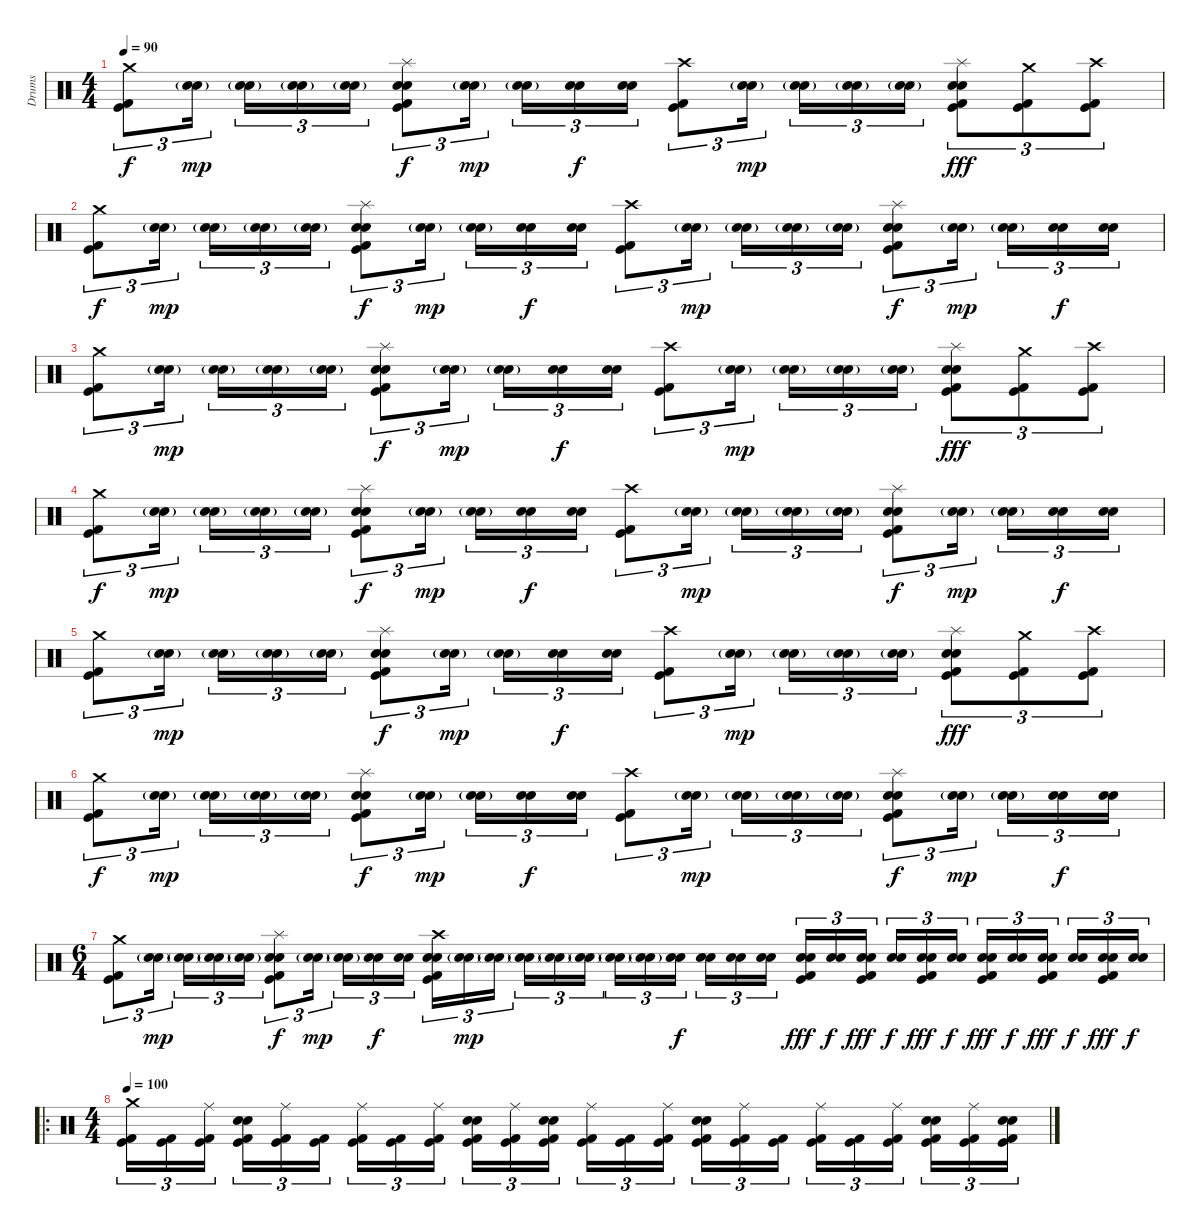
\track ("Drums" "Drums") {instrument percussion}
\staff {score}
\articulation defaults
\ts (4 4)
\tempo 90
\clef neutral
\ks c
("Crash medium (hit)" "Kick (hit)" "Kick (hit) 2").8{tu (3 2) dy f} ("Snare (hit) 2"{g} "Electric Snare (hit)"{g}).16{tu (3 2) dy mp beam splitsecondary} ("Snare (hit) 2"{g} "Electric Snare (hit)"{g}).16{tu (3 2)} ("Snare (hit) 2"{g} "Electric Snare (hit)"{g}).16{tu (3 2)} ("Snare (hit) 2"{g} "Electric Snare (hit)"{g}).16{tu (3 2)} ("Splash (hit)" "Snare (hit) 2" "Electric Snare (hit)" "Kick (hit)" "Kick (hit) 2").8{tu (3 2) dy f} ("Snare (hit) 2"{g} "Electric Snare (hit)"{g}).16{tu (3 2) dy mp beam splitsecondary} ("Snare (hit) 2"{g} "Electric Snare (hit)"{g}).16{tu (3 2)} ("Snare (hit) 2" "Electric Snare (hit)").16{tu (3 2) dy f} ("Snare (hit) 2" "Electric Snare (hit)").16{tu (3 2)} ("Crash high (hit)" "Kick (hit)" "Kick (hit) 2").8{tu (3 2)} ("Electric Snare (hit)"{g} "Snare (hit) 2"{g}).16{tu (3 2) dy mp beam splitsecondary} ("Electric Snare (hit)"{g} "Snare (hit) 2"{g}).16{tu (3 2)} ("Electric Snare (hit)"{g} "Snare (hit) 2"{g}).16{tu (3 2)} ("Electric Snare (hit)"{g} "Snare (hit) 2"{g}).16{tu (3 2)} ("Splash (hit)" "Electric Snare (hit)" "Snare (hit) 2" "Kick (hit)" "Kick (hit) 2").8{tu (3 2) dy fff} ("Crash medium (hit)" "Kick (hit)" "Kick (hit) 2").8{tu (3 2)} ("Crash high (hit)" "Kick (hit)" "Kick (hit) 2").8{tu (3 2)} |
("Crash medium (hit)" "Kick (hit)" "Kick (hit) 2").8{tu (3 2) dy f} ("Snare (hit) 2"{g} "Electric Snare (hit)"{g}).16{tu (3 2) dy mp beam splitsecondary} ("Snare (hit) 2"{g} "Electric Snare (hit)"{g}).16{tu (3 2)} ("Snare (hit) 2"{g} "Electric Snare (hit)"{g}).16{tu (3 2)} ("Snare (hit) 2"{g} "Electric Snare (hit)"{g}).16{tu (3 2)} ("Splash (hit)" "Snare (hit) 2" "Electric Snare (hit)" "Kick (hit)" "Kick (hit) 2").8{tu (3 2) dy f} ("Snare (hit) 2"{g} "Electric Snare (hit)"{g}).16{tu (3 2) dy mp beam splitsecondary} ("Snare (hit) 2"{g} "Electric Snare (hit)"{g}).16{tu (3 2)} ("Snare (hit) 2" "Electric Snare (hit)").16{tu (3 2) dy f} ("Snare (hit) 2" "Electric Snare (hit)").16{tu (3 2)} ("Crash high (hit)" "Kick (hit)" "Kick (hit) 2").8{tu (3 2)} ("Electric Snare (hit)"{g} "Snare (hit) 2"{g}).16{tu (3 2) dy mp beam splitsecondary} ("Electric Snare (hit)"{g} "Snare (hit) 2"{g}).16{tu (3 2)} ("Electric Snare (hit)"{g} "Snare (hit) 2"{g}).16{tu (3 2)} ("Electric Snare (hit)"{g} "Snare (hit) 2"{g}).16{tu (3 2)} ("Splash (hit)" "Electric Snare (hit)" "Snare (hit) 2" "Kick (hit)" "Kick (hit) 2").8{tu (3 2) dy f} ("Snare (hit) 2"{g} "Electric Snare (hit)"{g}).16{tu (3 2) dy mp beam splitsecondary} ("Snare (hit) 2"{g} "Electric Snare (hit)"{g}).16{tu (3 2)} ("Snare (hit) 2" "Electric Snare (hit)").16{tu (3 2) dy f} ("Snare (hit) 2" "Electric Snare (hit)").16{tu (3 2)} |
("Crash medium (hit)" "Kick (hit)" "Kick (hit) 2").8{tu (3 2)} ("Snare (hit) 2"{g} "Electric Snare (hit)"{g}).16{tu (3 2) dy mp beam splitsecondary} ("Snare (hit) 2"{g} "Electric Snare (hit)"{g}).16{tu (3 2)} ("Snare (hit) 2"{g} "Electric Snare (hit)"{g}).16{tu (3 2)} ("Snare (hit) 2"{g} "Electric Snare (hit)"{g}).16{tu (3 2)} ("Splash (hit)" "Snare (hit) 2" "Electric Snare (hit)" "Kick (hit)" "Kick (hit) 2").8{tu (3 2) dy f} ("Snare (hit) 2"{g} "Electric Snare (hit)"{g}).16{tu (3 2) dy mp beam splitsecondary} ("Snare (hit) 2"{g} "Electric Snare (hit)"{g}).16{tu (3 2)} ("Snare (hit) 2" "Electric Snare (hit)").16{tu (3 2) dy f} ("Snare (hit) 2" "Electric Snare (hit)").16{tu (3 2)} ("Crash high (hit)" "Kick (hit)" "Kick (hit) 2").8{tu (3 2)} ("Electric Snare (hit)"{g} "Snare (hit) 2"{g}).16{tu (3 2) dy mp beam splitsecondary} ("Electric Snare (hit)"{g} "Snare (hit) 2"{g}).16{tu (3 2)} ("Electric Snare (hit)"{g} "Snare (hit) 2"{g}).16{tu (3 2)} ("Electric Snare (hit)"{g} "Snare (hit) 2"{g}).16{tu (3 2)} ("Splash (hit)" "Electric Snare (hit)" "Snare (hit) 2" "Kick (hit)" "Kick (hit) 2").8{tu (3 2) dy fff} ("Crash medium (hit)" "Kick (hit)" "Kick (hit) 2").8{tu (3 2)} ("Crash high (hit)" "Kick (hit)" "Kick (hit) 2").8{tu (3 2)} |
("Crash medium (hit)" "Kick (hit)" "Kick (hit) 2").8{tu (3 2) dy f} ("Snare (hit) 2"{g} "Electric Snare (hit)"{g}).16{tu (3 2) dy mp beam splitsecondary} ("Snare (hit) 2"{g} "Electric Snare (hit)"{g}).16{tu (3 2)} ("Snare (hit) 2"{g} "Electric Snare (hit)"{g}).16{tu (3 2)} ("Snare (hit) 2"{g} "Electric Snare (hit)"{g}).16{tu (3 2)} ("Splash (hit)" "Snare (hit) 2" "Electric Snare (hit)" "Kick (hit)" "Kick (hit) 2").8{tu (3 2) dy f} ("Snare (hit) 2"{g} "Electric Snare (hit)"{g}).16{tu (3 2) dy mp beam splitsecondary} ("Snare (hit) 2"{g} "Electric Snare (hit)"{g}).16{tu (3 2)} ("Snare (hit) 2" "Electric Snare (hit)").16{tu (3 2) dy f} ("Snare (hit) 2" "Electric Snare (hit)").16{tu (3 2)} ("Crash high (hit)" "Kick (hit)" "Kick (hit) 2").8{tu (3 2)} ("Electric Snare (hit)"{g} "Snare (hit) 2"{g}).16{tu (3 2) dy mp beam splitsecondary} ("Electric Snare (hit)"{g} "Snare (hit) 2"{g}).16{tu (3 2)} ("Electric Snare (hit)"{g} "Snare (hit) 2"{g}).16{tu (3 2)} ("Electric Snare (hit)"{g} "Snare (hit) 2"{g}).16{tu (3 2)} ("Splash (hit)" "Electric Snare (hit)" "Snare (hit) 2" "Kick (hit)" "Kick (hit) 2").8{tu (3 2) dy f} ("Snare (hit) 2"{g} "Electric Snare (hit)"{g}).16{tu (3 2) dy mp beam splitsecondary} ("Snare (hit) 2"{g} "Electric Snare (hit)"{g}).16{tu (3 2)} ("Snare (hit) 2" "Electric Snare (hit)").16{tu (3 2) dy f} ("Snare (hit) 2" "Electric Snare (hit)").16{tu (3 2)} |
("Crash medium (hit)" "Kick (hit)" "Kick (hit) 2").8{tu (3 2)} ("Snare (hit) 2"{g} "Electric Snare (hit)"{g}).16{tu (3 2) dy mp beam splitsecondary} ("Snare (hit) 2"{g} "Electric Snare (hit)"{g}).16{tu (3 2)} ("Snare (hit) 2"{g} "Electric Snare (hit)"{g}).16{tu (3 2)} ("Snare (hit) 2"{g} "Electric Snare (hit)"{g}).16{tu (3 2)} ("Splash (hit)" "Snare (hit) 2" "Electric Snare (hit)" "Kick (hit)" "Kick (hit) 2").8{tu (3 2) dy f} ("Snare (hit) 2"{g} "Electric Snare (hit)"{g}).16{tu (3 2) dy mp beam splitsecondary} ("Snare (hit) 2"{g} "Electric Snare (hit)"{g}).16{tu (3 2)} ("Snare (hit) 2" "Electric Snare (hit)").16{tu (3 2) dy f} ("Snare (hit) 2" "Electric Snare (hit)").16{tu (3 2)} ("Crash high (hit)" "Kick (hit)" "Kick (hit) 2").8{tu (3 2)} ("Electric Snare (hit)"{g} "Snare (hit) 2"{g}).16{tu (3 2) dy mp beam splitsecondary} ("Electric Snare (hit)"{g} "Snare (hit) 2"{g}).16{tu (3 2)} ("Electric Snare (hit)"{g} "Snare (hit) 2"{g}).16{tu (3 2)} ("Electric Snare (hit)"{g} "Snare (hit) 2"{g}).16{tu (3 2)} ("Splash (hit)" "Electric Snare (hit)" "Snare (hit) 2" "Kick (hit)" "Kick (hit) 2").8{tu (3 2) dy fff} ("Crash medium (hit)" "Kick (hit)" "Kick (hit) 2").8{tu (3 2)} ("Crash high (hit)" "Kick (hit)" "Kick (hit) 2").8{tu (3 2)} |
("Crash medium (hit)" "Kick (hit)" "Kick (hit) 2").8{tu (3 2) dy f} ("Snare (hit) 2"{g} "Electric Snare (hit)"{g}).16{tu (3 2) dy mp beam splitsecondary} ("Snare (hit) 2"{g} "Electric Snare (hit)"{g}).16{tu (3 2)} ("Snare (hit) 2"{g} "Electric Snare (hit)"{g}).16{tu (3 2)} ("Snare (hit) 2"{g} "Electric Snare (hit)"{g}).16{tu (3 2)} ("Splash (hit)" "Snare (hit) 2" "Electric Snare (hit)" "Kick (hit)" "Kick (hit) 2").8{tu (3 2) dy f} ("Snare (hit) 2"{g} "Electric Snare (hit)"{g}).16{tu (3 2) dy mp beam splitsecondary} ("Snare (hit) 2"{g} "Electric Snare (hit)"{g}).16{tu (3 2)} ("Snare (hit) 2" "Electric Snare (hit)").16{tu (3 2) dy f} ("Snare (hit) 2" "Electric Snare (hit)").16{tu (3 2)} ("Crash high (hit)" "Kick (hit)" "Kick (hit) 2").8{tu (3 2)} ("Electric Snare (hit)"{g} "Snare (hit) 2"{g}).16{tu (3 2) dy mp beam splitsecondary} ("Electric Snare (hit)"{g} "Snare (hit) 2"{g}).16{tu (3 2)} ("Electric Snare (hit)"{g} "Snare (hit) 2"{g}).16{tu (3 2)} ("Electric Snare (hit)"{g} "Snare (hit) 2"{g}).16{tu (3 2)} ("Splash (hit)" "Electric Snare (hit)" "Snare (hit) 2" "Kick (hit)" "Kick (hit) 2").8{tu (3 2) dy f} ("Snare (hit) 2"{g} "Electric Snare (hit)"{g}).16{tu (3 2) dy mp beam splitsecondary} ("Snare (hit) 2"{g} "Electric Snare (hit)"{g}).16{tu (3 2)} ("Snare (hit) 2" "Electric Snare (hit)").16{tu (3 2) dy f} ("Snare (hit) 2" "Electric Snare (hit)").16{tu (3 2)} |
\ts (6 4)
("Crash medium (hit)" "Kick (hit)" "Kick (hit) 2").8{tu (3 2)} ("Snare (hit) 2"{g} "Electric Snare (hit)"{g}).16{tu (3 2) dy mp beam splitsecondary} ("Snare (hit) 2"{g} "Electric Snare (hit)"{g}).16{tu (3 2)} ("Snare (hit) 2"{g} "Electric Snare (hit)"{g}).16{tu (3 2)} ("Snare (hit) 2"{g} "Electric Snare (hit)"{g}).16{tu (3 2)} ("Splash (hit)" "Snare (hit) 2" "Electric Snare (hit)" "Kick (hit)" "Kick (hit) 2").8{tu (3 2) dy f} ("Snare (hit) 2"{g} "Electric Snare (hit)"{g}).16{tu (3 2) dy mp beam splitsecondary} ("Snare (hit) 2"{g} "Electric Snare (hit)"{g}).16{tu (3 2)} ("Snare (hit) 2" "Electric Snare (hit)").16{tu (3 2) dy f} ("Snare (hit) 2" "Electric Snare (hit)").16{tu (3 2) beam splitsecondary} ("Crash high (hit)" "Electric Snare (hit)" "Snare (hit) 2" "Kick (hit)" "Kick (hit) 2").16{tu (3 2)} ("Electric Snare (hit)"{g} "Snare (hit) 2"{g}).16{tu (3 2) dy mp} ("Electric Snare (hit)"{g} "Snare (hit) 2"{g}).16{tu (3 2) beam splitsecondary} ("Electric Snare (hit)"{g} "Snare (hit) 2"{g}).16{tu (3 2)} ("Electric Snare (hit)"{g} "Snare (hit) 2"{g}).16{tu (3 2)} ("Electric Snare (hit)"{g} "Snare (hit) 2"{g}).16{tu (3 2)} ("Snare (hit) 2"{g} "Electric Snare (hit)"{g}).16{tu (3 2)} ("Snare (hit) 2"{g} "Electric Snare (hit)"{g}).16{tu (3 2)} ("Snare (hit) 2" "Electric Snare (hit)").16{tu (3 2) dy f beam splitsecondary} ("Snare (hit) 2" "Electric Snare (hit)").16{tu (3 2)} ("Snare (hit) 2" "Electric Snare (hit)").16{tu (3 2)} ("Snare (hit) 2" "Electric Snare (hit)").16{tu (3 2) beam splitsecondary} ("Electric Snare (hit)" "Snare (hit) 2" "Kick (hit)" "Kick (hit) 2").16{tu (3 2) dy fff} ("Electric Snare (hit)" "Snare (hit) 2").16{tu (3 2) dy f} ("Electric Snare (hit)" "Snare (hit) 2" "Kick (hit)" "Kick (hit) 2").16{tu (3 2) dy fff beam splitsecondary} ("Electric Snare (hit)" "Snare (hit) 2").16{tu (3 2) dy f} ("Electric Snare (hit)" "Snare (hit) 2" "Kick (hit)" "Kick (hit) 2").16{tu (3 2) dy fff} ("Electric Snare (hit)" "Snare (hit) 2").16{tu (3 2) dy f beam splitsecondary} ("Electric Snare (hit)" "Snare (hit) 2" "Kick (hit)" "Kick (hit) 2").16{tu (3 2) dy fff} ("Electric Snare (hit)" "Snare (hit) 2").16{tu (3 2) dy f} ("Electric Snare (hit)" "Snare (hit) 2" "Kick (hit)" "Kick (hit) 2").16{tu (3 2) dy fff beam splitsecondary} ("Electric Snare (hit)" "Snare (hit) 2").16{tu (3 2) dy f} ("Electric Snare (hit)" "Snare (hit) 2" "Kick (hit)" "Kick (hit) 2").16{tu (3 2) dy fff} ("Electric Snare (hit)" "Snare (hit) 2").16{tu (3 2) dy f} |
\ro
\ts (4 4)
\tempo 100
("Crash medium (hit)" "Kick (hit)" "Kick (hit) 2").16{tu (3 2)} ("Kick (hit)" "Kick (hit) 2").16{tu (3 2)} ("Ride (middle)" "Kick (hit)" "Kick (hit) 2").16{tu (3 2) beam splitsecondary} ("Electric Snare (hit)" "Snare (hit) 2" "Kick (hit)" "Kick (hit) 2").16{tu (3 2)} ("Ride (middle)" "Kick (hit)" "Kick (hit) 2").16{tu (3 2)} ("Kick (hit)" "Kick (hit) 2").16{tu (3 2)} ("Ride (middle)" "Kick (hit)" "Kick (hit) 2").16{tu (3 2)} ("Kick (hit)" "Kick (hit) 2").16{tu (3 2)} ("Ride (middle)" "Kick (hit)" "Kick (hit) 2").16{tu (3 2) beam splitsecondary} ("Electric Snare (hit)" "Snare (hit) 2" "Kick (hit)" "Kick (hit) 2").16{tu (3 2)} ("Ride (middle)" "Kick (hit)" "Kick (hit) 2").16{tu (3 2)} ("Electric Snare (hit)" "Snare (hit) 2" "Kick (hit)" "Kick (hit) 2").16{tu (3 2)} ("Ride (middle)" "Kick (hit)" "Kick (hit) 2").16{tu (3 2)} ("Kick (hit)" "Kick (hit) 2").16{tu (3 2)} ("Ride (middle)" "Kick (hit)" "Kick (hit) 2").16{tu (3 2) beam splitsecondary} ("Electric Snare (hit)" "Snare (hit) 2" "Kick (hit)" "Kick (hit) 2").16{tu (3 2)} ("Ride (middle)" "Kick (hit)" "Kick (hit) 2").16{tu (3 2)} ("Kick (hit)" "Kick (hit) 2").16{tu (3 2)} ("Ride (middle)" "Kick (hit)" "Kick (hit) 2").16{tu (3 2)} ("Kick (hit)" "Kick (hit) 2").16{tu (3 2)} ("Ride (middle)" "Kick (hit)" "Kick (hit) 2").16{tu (3 2) beam splitsecondary} ("Electric Snare (hit)" "Snare (hit) 2" "Kick (hit)" "Kick (hit) 2").16{tu (3 2)} ("Ride (middle)" "Kick (hit)" "Kick (hit) 2").16{tu (3 2)} ("Electric Snare (hit)" "Snare (hit) 2" "Kick (hit)" "Kick (hit) 2").16{tu (3 2)}
